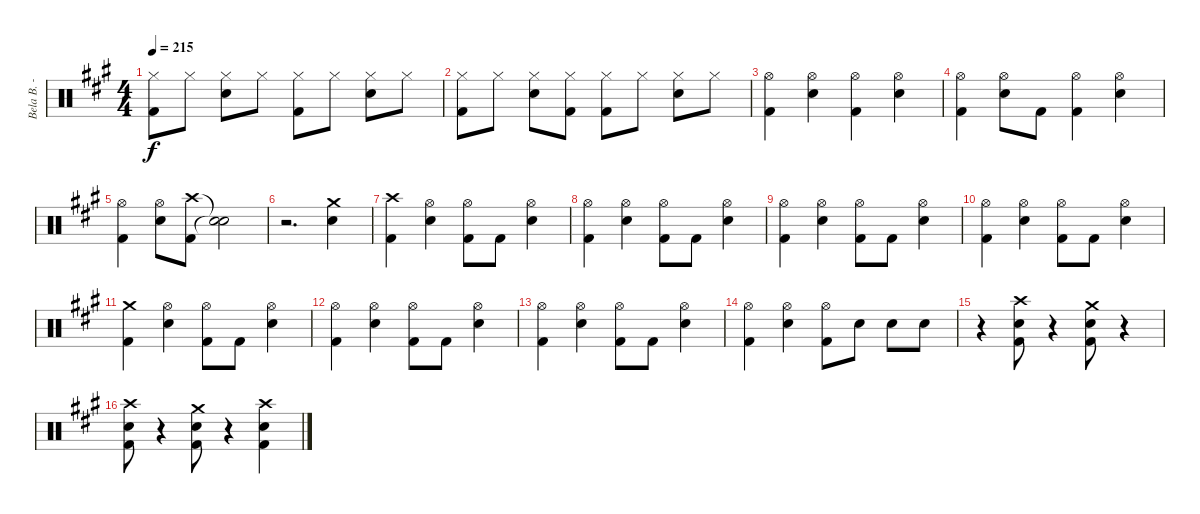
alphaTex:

\track ("Bela B. - Schlagzeug" "Bela B. - ") {instrument percussion}
\staff {score}
\articulation defaults
\ts (4 4)
\tempo 215
\clef neutral
\ks a
("Hi-Hat (closed)" "Kick (hit) 2").8{dy f} "Hi-Hat (closed)".8 ("Hi-Hat (closed)" "Snare (hit) 2").8 "Hi-Hat (closed)".8 ("Hi-Hat (closed)" "Kick (hit) 2").8 "Hi-Hat (closed)".8 ("Hi-Hat (closed)" "Snare (hit) 2").8 "Hi-Hat (closed)".8 |
("Hi-Hat (closed)" "Kick (hit) 2").8 "Hi-Hat (closed)".8 ("Hi-Hat (closed)" "Snare (hit) 2").8 ("Hi-Hat (closed)" "Kick (hit) 2").8 ("Hi-Hat (closed)" "Kick (hit) 2").8 "Hi-Hat (closed)".8 ("Hi-Hat (closed)" "Snare (hit) 2").8 "Hi-Hat (closed)".8 |
("Hi-Hat (open)" "Kick (hit) 2").4 ("Hi-Hat (open)" "Snare (hit) 2").4 ("Hi-Hat (open)" "Kick (hit) 2").4 ("Hi-Hat (open)" "Snare (hit) 2").4 |
("Hi-Hat (open)" "Kick (hit) 2").4 ("Hi-Hat (open)" "Snare (hit) 2").8 "Kick (hit) 2".8 ("Hi-Hat (open)" "Kick (hit) 2").4 ("Hi-Hat (open)" "Snare (hit) 2").4 |
("Hi-Hat (open)" "Kick (hit) 2").4 ("Hi-Hat (open)" "Snare (hit) 2").8 ("Crash high (hit)" "Kick (hit) 2").8 ("Snare (hit)"{t} "Snare (hit)"{t}).2 |
r.2{d} ("Crash medium (hit)" "Snare (hit) 2").4 |
("Crash high (hit)" "Kick (hit) 2").4 ("Hi-Hat (open)" "Snare (hit) 2").4 ("Hi-Hat (open)" "Kick (hit) 2").8 "Kick (hit) 2".8 ("Hi-Hat (open)" "Snare (hit) 2").4 |
("Hi-Hat (open)" "Kick (hit) 2").4 ("Hi-Hat (open)" "Snare (hit) 2").4 ("Hi-Hat (open)" "Kick (hit) 2").8 "Kick (hit) 2".8 ("Hi-Hat (open)" "Snare (hit) 2").4 |
("Hi-Hat (open)" "Kick (hit) 2").4 ("Hi-Hat (open)" "Snare (hit) 2").4 ("Hi-Hat (open)" "Kick (hit) 2").8 "Kick (hit) 2".8 ("Hi-Hat (open)" "Snare (hit) 2").4 |
("Hi-Hat (open)" "Kick (hit) 2").4 ("Hi-Hat (open)" "Snare (hit) 2").4 ("Hi-Hat (open)" "Kick (hit) 2").8 "Kick (hit) 2".8 ("Hi-Hat (open)" "Snare (hit) 2").4 |
("Crash medium (hit)" "Kick (hit) 2").4 ("Hi-Hat (open)" "Snare (hit) 2").4 ("Hi-Hat (open)" "Kick (hit) 2").8 "Kick (hit) 2".8 ("Hi-Hat (open)" "Snare (hit) 2").4 |
("Hi-Hat (open)" "Kick (hit) 2").4 ("Hi-Hat (open)" "Snare (hit) 2").4 ("Hi-Hat (open)" "Kick (hit) 2").8 "Kick (hit) 2".8 ("Hi-Hat (open)" "Snare (hit) 2").4 |
("Hi-Hat (open)" "Kick (hit) 2").4 ("Hi-Hat (open)" "Snare (hit) 2").4 ("Hi-Hat (open)" "Kick (hit) 2").8 "Kick (hit) 2".8 ("Hi-Hat (open)" "Snare (hit) 2").4 |
("Hi-Hat (open)" "Kick (hit) 2").4 ("Hi-Hat (open)" "Snare (hit) 2").4 ("Hi-Hat (open)" "Kick (hit) 2").8 "Snare (hit) 2".8 "Snare (hit) 2".8 "Snare (hit) 2".8 |
r.4 ("Crash high (hit)" "Snare (hit) 2" "Kick (hit) 2").8 r.4 ("Crash medium (hit)" "Snare (hit) 2" "Kick (hit) 2").8 r.4 |
("Crash high (hit)" "Snare (hit) 2" "Kick (hit) 2").8 r.4 ("Crash medium (hit)" "Snare (hit) 2" "Kick (hit) 2").8 r.4 ("Crash high (hit)" "Snare (hit) 2" "Kick (hit) 2").4
